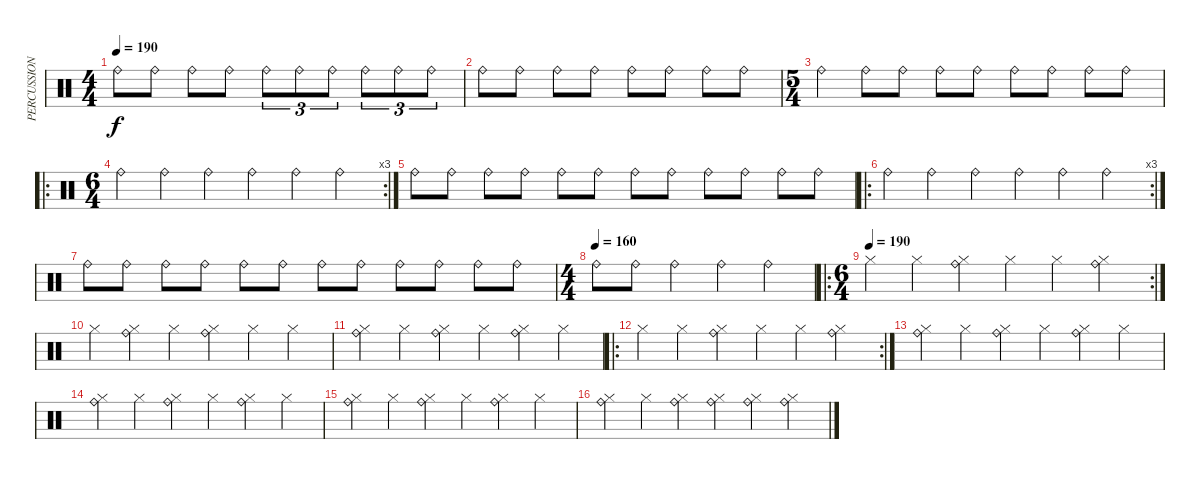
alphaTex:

\track ("PERCUSSION" "PERCUSSION") {instrument percussion}
\staff {score}
\articulation defaults
\ts (4 4)
\tempo 190
\clef neutral
\ks c "Ride (bell)".8{dy f} "Ride (bell)".8 "Ride (bell)".8 "Ride (bell)".8 "Ride (bell)".8{tu (3 2)} "Ride (bell)".8{tu (3 2)} "Ride (bell)".8{tu (3 2)} "Ride (bell)".8{tu (3 2)} "Ride (bell)".8{tu (3 2)} "Ride (bell)".8{tu (3 2)}
|
"Ride (bell)".8 "Ride (bell)".8 "Ride (bell)".8 "Ride (bell)".8 "Ride (bell)".8 "Ride (bell)".8 "Ride (bell)".8 "Ride (bell)".8 |
\ts (5 4)
"Ride (bell)".4 "Ride (bell)".8 "Ride (bell)".8 "Ride (bell)".8 "Ride (bell)".8 "Ride (bell)".8 "Ride (bell)".8 "Ride (bell)".8 "Ride (bell)".8 |
\ro
\rc 3
\ts (6 4)
"Ride (bell)".4 "Ride (bell)".4 "Ride (bell)".4 "Ride (bell)".4 "Ride (bell)".4 "Ride (bell)".4 |
"Ride (bell)".8 "Ride (bell)".8 "Ride (bell)".8 "Ride (bell)".8 "Ride (bell)".8 "Ride (bell)".8 "Ride (bell)".8 "Ride (bell)".8 "Ride (bell)".8 "Ride (bell)".8 "Ride (bell)".8 "Ride (bell)".8 |
\ro
\rc 3 "Ride (bell)".4 "Ride (bell)".4 "Ride (bell)".4 "Ride (bell)".4 "Ride (bell)".4 "Ride (bell)".4
|
"Ride (bell)".8 "Ride (bell)".8 "Ride (bell)".8 "Ride (bell)".8 "Ride (bell)".8 "Ride (bell)".8 "Ride (bell)".8 "Ride (bell)".8 "Ride (bell)".8 "Ride (bell)".8 "Ride (bell)".8 "Ride (bell)".8 |
\ts (4 4)
\tempo (160)
"Ride (bell)".8 "Ride (bell)".8 "Ride (bell)".4 "Ride (bell)".4 "Ride (bell)".4 |
\ro
\rc 2
\ts (6 4)
\tempo (190)
"Hi-Hat (closed)".4 "Hi-Hat (closed)".4 ("Hi-Hat (closed)" "Ride (bell)").4 "Hi-Hat (closed)".4 "Hi-Hat (closed)".4 ("Hi-Hat (closed)" "Ride (bell)").4 |
"Hi-Hat (closed)".4 ("Hi-Hat (closed)" "Ride (bell)").4 "Hi-Hat (closed)".4 ("Hi-Hat (closed)" "Ride (bell)").4 "Hi-Hat (closed)".4 "Hi-Hat (closed)".4 |
("Hi-Hat (closed)" "Ride (bell)").4 "Hi-Hat (closed)".4 ("Hi-Hat (closed)" "Ride (bell)").4 "Hi-Hat (closed)".4 ("Hi-Hat (closed)" "Ride (bell)").4 "Hi-Hat (closed)".4 |
\ro
\rc 2 "Hi-Hat (closed)".4 "Hi-Hat (closed)".4
("Hi-Hat (closed)" "Ride (bell)").4 "Hi-Hat (closed)".4 "Hi-Hat (closed)".4 ("Hi-Hat (closed)" "Ride (bell)").4 |
("Hi-Hat (closed)" "Ride (bell)").4 "Hi-Hat (closed)".4 ("Hi-Hat (closed)" "Ride (bell)").4 "Hi-Hat (closed)".4 ("Hi-Hat (closed)" "Ride (bell)").4 "Hi-Hat (closed)".4 |
("Hi-Hat (closed)" "Ride (bell)").4 "Hi-Hat (closed)".4 ("Hi-Hat (closed)" "Ride (bell)").4 "Hi-Hat (closed)".4 ("Hi-Hat (closed)" "Ride (bell)").4 "Hi-Hat (closed)".4 |
("Hi-Hat (closed)" "Ride (bell)").4 "Hi-Hat (closed)".4 ("Hi-Hat (closed)" "Ride (bell)").4 "Hi-Hat (closed)".4 ("Hi-Hat (closed)" "Ride (bell)").4 "Hi-Hat (closed)".4 |
("Hi-Hat (closed)" "Ride (bell)").4 "Hi-Hat (closed)".4 ("Hi-Hat (closed)" "Ride (bell)").4 ("Hi-Hat (closed)" "Ride (bell)").4 ("Hi-Hat (closed)" "Ride (bell)").4 ("Hi-Hat (closed)" "Ride (bell)").4
